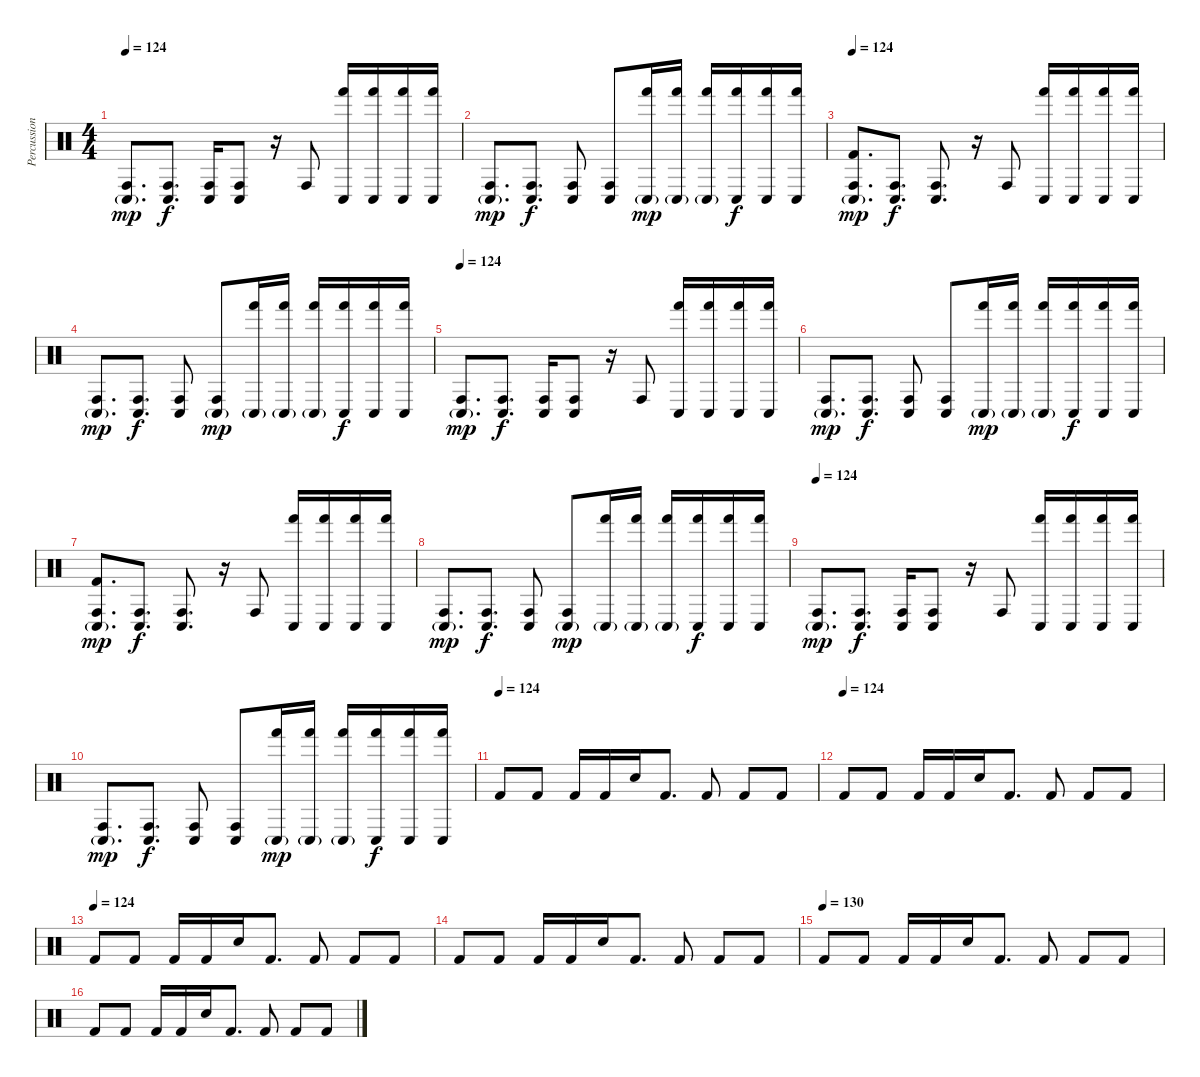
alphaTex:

\track ("Percussion" "Percussion") {instrument percussion}
\staff {score}
\articulation defaults
\ts (4 4)
\tempo 124
\clef neutral
\ks c
("Conga low (hit)"{g} "Conga high (hit)").8{d dy mp} ("Conga low (hit)" "Conga high (hit)").8{d dy f} ("Conga low (hit)" "Conga high (hit)").16 ("Conga low (hit)" "Conga high (hit)").8 r.16 "Conga high (hit)".8 ("Conga low (hit)" "Hand (hit)").16 ("Conga low (hit)" "Hand (hit)").16 ("Conga low (hit)" "Hand (hit)").16 ("Conga low (hit)" "Hand (hit)").16 |
("Conga low (hit)"{g} "Conga high (hit)").8{d dy mp} ("Conga low (hit)" "Conga high (hit)").8{d dy f} ("Conga low (hit)" "Conga high (hit)").8 ("Conga low (hit)" "Conga high (hit)").8 ("Conga low (hit)"{g} "Hand (hit)").16{dy mp} ("Conga low (hit)"{g} "Hand (hit)").16 ("Conga low (hit)"{g} "Hand (hit)").16 ("Conga low (hit)" "Hand (hit)").16{dy f} ("Conga low (hit)" "Hand (hit)").16 ("Conga low (hit)" "Hand (hit)").16 |
\tempo 124
("Conga low (hit)"{g} "Conga high (hit)" "Kick (hit) 2").8{d dy mp} ("Conga low (hit)" "Conga high (hit)").8{d dy f} ("Conga low (hit)" "Conga high (hit)").8{d} r.16 "Conga high (hit)".8 ("Conga low (hit)" "Hand (hit)").16 ("Conga low (hit)" "Hand (hit)").16 ("Conga low (hit)" "Hand (hit)").16 ("Conga low (hit)" "Hand (hit)").16 |
("Conga low (hit)"{g} "Conga high (hit)").8{d dy mp} ("Conga low (hit)" "Conga high (hit)").8{d dy f} ("Conga low (hit)" "Conga high (hit)").8 ("Conga low (hit)"{g} "Conga high (hit)").8{dy mp} ("Conga low (hit)"{g} "Hand (hit)").16 ("Conga low (hit)"{g} "Hand (hit)").16 ("Conga low (hit)"{g} "Hand (hit)").16 ("Conga low (hit)" "Hand (hit)").16{dy f} ("Conga low (hit)" "Hand (hit)").16 ("Conga low (hit)" "Hand (hit)").16 |
\tempo 124
("Conga low (hit)"{g} "Conga high (hit)").8{d dy mp} ("Conga low (hit)" "Conga high (hit)").8{d dy f} ("Conga low (hit)" "Conga high (hit)").16 ("Conga low (hit)" "Conga high (hit)").8 r.16 "Conga high (hit)".8 ("Conga low (hit)" "Hand (hit)").16 ("Conga low (hit)" "Hand (hit)").16 ("Conga low (hit)" "Hand (hit)").16 ("Conga low (hit)" "Hand (hit)").16 |
("Conga low (hit)"{g} "Conga high (hit)").8{d dy mp} ("Conga low (hit)" "Conga high (hit)").8{d dy f} ("Conga low (hit)" "Conga high (hit)").8 ("Conga low (hit)" "Conga high (hit)").8 ("Conga low (hit)"{g} "Hand (hit)").16{dy mp} ("Conga low (hit)"{g} "Hand (hit)").16 ("Conga low (hit)"{g} "Hand (hit)").16 ("Conga low (hit)" "Hand (hit)").16{dy f} ("Conga low (hit)" "Hand (hit)").16 ("Conga low (hit)" "Hand (hit)").16 |
("Conga low (hit)"{g} "Conga high (hit)" "Kick (hit) 2").8{d dy mp} ("Conga low (hit)" "Conga high (hit)").8{d dy f} ("Conga low (hit)" "Conga high (hit)").8{d} r.16 "Conga high (hit)".8 ("Conga low (hit)" "Hand (hit)").16 ("Conga low (hit)" "Hand (hit)").16 ("Conga low (hit)" "Hand (hit)").16 ("Conga low (hit)" "Hand (hit)").16 |
("Conga low (hit)"{g} "Conga high (hit)").8{d dy mp} ("Conga low (hit)" "Conga high (hit)").8{d dy f} ("Conga low (hit)" "Conga high (hit)").8 ("Conga low (hit)"{g} "Conga high (hit)").8{dy mp} ("Conga low (hit)"{g} "Hand (hit)").16 ("Conga low (hit)"{g} "Hand (hit)").16 ("Conga low (hit)"{g} "Hand (hit)").16 ("Conga low (hit)" "Hand (hit)").16{dy f} ("Conga low (hit)" "Hand (hit)").16 ("Conga low (hit)" "Hand (hit)").16 |
\tempo 124
("Conga low (hit)"{g} "Conga high (hit)").8{d dy mp} ("Conga low (hit)" "Conga high (hit)").8{d dy f} ("Conga low (hit)" "Conga high (hit)").16 ("Conga low (hit)" "Conga high (hit)").8 r.16 "Conga high (hit)".8 ("Conga low (hit)" "Hand (hit)").16 ("Conga low (hit)" "Hand (hit)").16 ("Conga low (hit)" "Hand (hit)").16 ("Conga low (hit)" "Hand (hit)").16 |
("Conga low (hit)"{g} "Conga high (hit)").8{d dy mp} ("Conga low (hit)" "Conga high (hit)").8{d dy f} ("Conga low (hit)" "Conga high (hit)").8 ("Conga low (hit)" "Conga high (hit)").8 ("Conga low (hit)"{g} "Hand (hit)").16{dy mp} ("Conga low (hit)"{g} "Hand (hit)").16 ("Conga low (hit)"{g} "Hand (hit)").16 ("Conga low (hit)" "Hand (hit)").16{dy f} ("Conga low (hit)" "Hand (hit)").16 ("Conga low (hit)" "Hand (hit)").16 |
\tempo (124)
"Kick (hit) 2".8 "Kick (hit) 2".8 "Kick (hit) 2".16 "Kick (hit) 2".16 "Electric Snare (hit)".16 "Kick (hit) 2".8{d} "Kick (hit) 2".8 "Kick (hit) 2".8 "Kick (hit) 2".8 |
\tempo (124)
"Kick (hit) 2".8 "Kick (hit) 2".8 "Kick (hit) 2".16 "Kick (hit) 2".16 "Electric Snare (hit)".16 "Kick (hit) 2".8{d} "Kick (hit) 2".8 "Kick (hit) 2".8 "Kick (hit) 2".8 |
\tempo (124)
"Kick (hit) 2".8 "Kick (hit) 2".8 "Kick (hit) 2".16 "Kick (hit) 2".16 "Electric Snare (hit)".16 "Kick (hit) 2".8{d} "Kick (hit) 2".8 "Kick (hit) 2".8 "Kick (hit) 2".8 |
"Kick (hit) 2".8 "Kick (hit) 2".8 "Kick (hit) 2".16 "Kick (hit) 2".16 "Electric Snare (hit)".16 "Kick (hit) 2".8{d} "Kick (hit) 2".8 "Kick (hit) 2".8 "Kick (hit) 2".8 |
\tempo (130)
"Kick (hit) 2".8 "Kick (hit) 2".8 "Kick (hit) 2".16 "Kick (hit) 2".16 "Electric Snare (hit)".16 "Kick (hit) 2".8{d} "Kick (hit) 2".8 "Kick (hit) 2".8 "Kick (hit) 2".8 |
"Kick (hit) 2".8 "Kick (hit) 2".8 "Kick (hit) 2".16 "Kick (hit) 2".16 "Electric Snare (hit)".16 "Kick (hit) 2".8{d} "Kick (hit) 2".8 "Kick (hit) 2".8 "Kick (hit) 2".8
